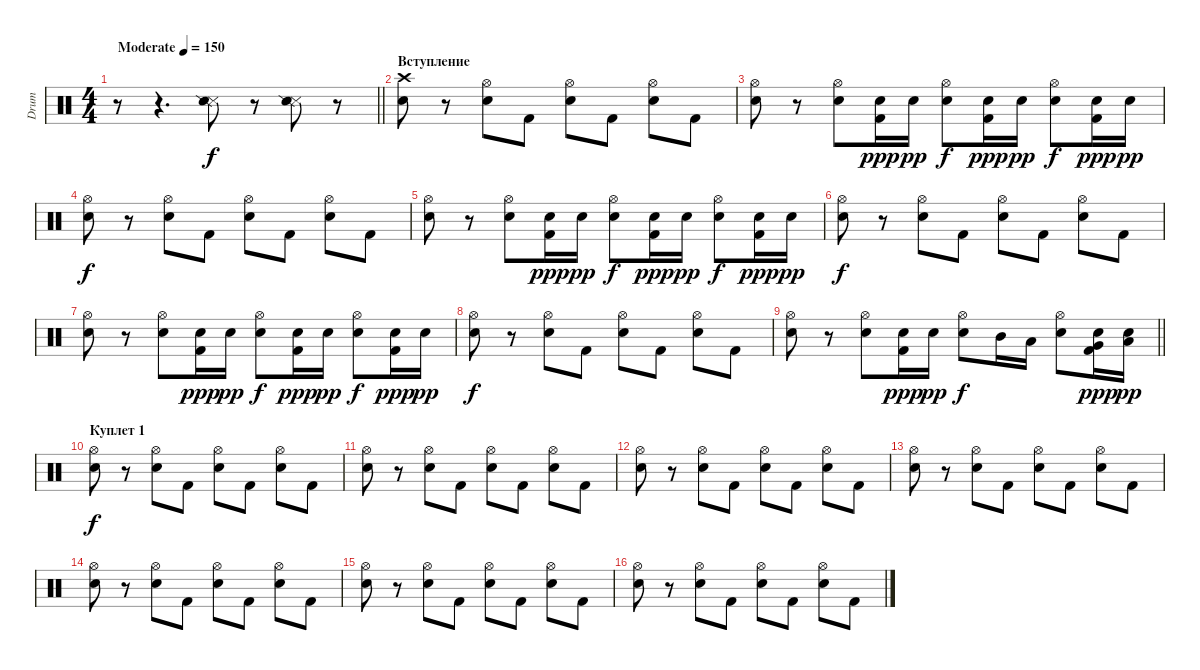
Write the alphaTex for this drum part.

\track ("Drum" "Drum") {instrument percussion}
\staff {score}
\articulation defaults
\ts (4 4)
\tempo (150 "Moderate")
\clef neutral
\barLineRight lightlight
\ks c
r.8{dy f} r.4{d} ("Snare (side stick) 3" "Snare (side stick) 2").8 r.8 ("Snare (side stick) 3" "Snare (side stick) 2").8 r.8 |
\section ("" "Вступление")
("Crash high (hit)" "Snare (hit) 2").8 r.8 ("Snare (hit) 2" "Hi-Hat (open)").8 "Kick (hit) 2".8 ("Snare (hit) 2" "Hi-Hat (open)").8 "Kick (hit) 2".8 ("Snare (hit) 2" "Hi-Hat (open)").8 "Kick (hit) 2".8 |
("Snare (hit) 2" "Hi-Hat (open)").8 r.8 ("Hi-Hat (open)" "Snare (hit) 2").8 ("Snare (hit) 2" "Kick (hit) 2").16{dy ppp} "Snare (hit) 2".16{dy pp} ("Hi-Hat (open)" "Snare (hit) 2").8{dy f} ("Snare (hit) 2" "Kick (hit) 2").16{dy ppp} "Snare (hit) 2".16{dy pp} ("Hi-Hat (open)" "Snare (hit) 2").8{dy f} ("Snare (hit) 2" "Kick (hit) 2").16{dy ppp} "Snare (hit) 2".16{dy pp} |
("Snare (hit) 2" "Hi-Hat (open)").8{dy f} r.8 ("Snare (hit) 2" "Hi-Hat (open)").8 "Kick (hit) 2".8 ("Snare (hit) 2" "Hi-Hat (open)").8 "Kick (hit) 2".8 ("Snare (hit) 2" "Hi-Hat (open)").8 "Kick (hit) 2".8 |
("Snare (hit) 2" "Hi-Hat (open)").8 r.8 ("Hi-Hat (open)" "Snare (hit) 2").8 ("Snare (hit) 2" "Kick (hit) 2").16{dy ppp} "Snare (hit) 2".16{dy pp} ("Hi-Hat (open)" "Snare (hit) 2").8{dy f} ("Snare (hit) 2" "Kick (hit) 2").16{dy ppp} "Snare (hit) 2".16{dy pp} ("Hi-Hat (open)" "Snare (hit) 2").8{dy f} ("Snare (hit) 2" "Kick (hit) 2").16{dy ppp} "Snare (hit) 2".16{dy pp} |
("Snare (hit) 2" "Hi-Hat (open)").8{dy f} r.8 ("Snare (hit) 2" "Hi-Hat (open)").8 "Kick (hit) 2".8 ("Snare (hit) 2" "Hi-Hat (open)").8 "Kick (hit) 2".8 ("Snare (hit) 2" "Hi-Hat (open)").8 "Kick (hit) 2".8 |
("Snare (hit) 2" "Hi-Hat (open)").8 r.8 ("Hi-Hat (open)" "Snare (hit) 2").8 ("Snare (hit) 2" "Kick (hit) 2").16{dy ppp} "Snare (hit) 2".16{dy pp} ("Hi-Hat (open)" "Snare (hit) 2").8{dy f} ("Snare (hit) 2" "Kick (hit) 2").16{dy ppp} "Snare (hit) 2".16{dy pp} ("Hi-Hat (open)" "Snare (hit) 2").8{dy f} ("Snare (hit) 2" "Kick (hit) 2").16{dy ppp} "Snare (hit) 2".16{dy pp} |
("Snare (hit) 2" "Hi-Hat (open)").8{dy f} r.8 ("Snare (hit) 2" "Hi-Hat (open)").8 "Kick (hit) 2".8 ("Snare (hit) 2" "Hi-Hat (open)").8 "Kick (hit) 2".8 ("Snare (hit) 2" "Hi-Hat (open)").8 "Kick (hit) 2".8 |
\barLineRight lightlight
("Snare (hit) 2" "Hi-Hat (open)").8 r.8 ("Hi-Hat (open)" "Snare (hit) 2").8 ("Snare (hit) 2" "Kick (hit) 2").16{dy ppp} "Snare (hit) 2".16{dy pp} ("Hi-Hat (open)" "Snare (hit) 2").8{dy f} "Mid Tom (hit)".16 "Low Tom (hit)".16 ("Hi-Hat (open)" "Snare (hit) 2").8 ("Very Low Tom (hit)" "Snare (hit) 2" "Kick (hit) 2").16{dy ppp} ("Low Floor Tom (hit)" "Snare (hit) 2").16{dy pp} |
\section ("" "Куплет 1")
("Snare (hit) 2" "Hi-Hat (open)").8{dy f} r.8 ("Snare (hit) 2" "Hi-Hat (open)").8 "Kick (hit) 2".8 ("Snare (hit) 2" "Hi-Hat (open)").8 "Kick (hit) 2".8 ("Snare (hit) 2" "Hi-Hat (open)").8 "Kick (hit) 2".8 |
("Snare (hit) 2" "Hi-Hat (open)").8 r.8 ("Snare (hit) 2" "Hi-Hat (open)").8 "Kick (hit) 2".8 ("Snare (hit) 2" "Hi-Hat (open)").8 "Kick (hit) 2".8 ("Snare (hit) 2" "Hi-Hat (open)").8 "Kick (hit) 2".8 |
("Snare (hit) 2" "Hi-Hat (open)").8 r.8 ("Snare (hit) 2" "Hi-Hat (open)").8 "Kick (hit) 2".8 ("Snare (hit) 2" "Hi-Hat (open)").8 "Kick (hit) 2".8 ("Snare (hit) 2" "Hi-Hat (open)").8 "Kick (hit) 2".8 |
("Snare (hit) 2" "Hi-Hat (open)").8 r.8 ("Snare (hit) 2" "Hi-Hat (open)").8 "Kick (hit) 2".8 ("Snare (hit) 2" "Hi-Hat (open)").8 "Kick (hit) 2".8 ("Snare (hit) 2" "Hi-Hat (open)").8 "Kick (hit) 2".8 |
("Snare (hit) 2" "Hi-Hat (open)").8 r.8 ("Snare (hit) 2" "Hi-Hat (open)").8 "Kick (hit) 2".8 ("Snare (hit) 2" "Hi-Hat (open)").8 "Kick (hit) 2".8 ("Snare (hit) 2" "Hi-Hat (open)").8 "Kick (hit) 2".8 |
("Snare (hit) 2" "Hi-Hat (open)").8 r.8 ("Snare (hit) 2" "Hi-Hat (open)").8 "Kick (hit) 2".8 ("Snare (hit) 2" "Hi-Hat (open)").8 "Kick (hit) 2".8 ("Snare (hit) 2" "Hi-Hat (open)").8 "Kick (hit) 2".8 |
("Snare (hit) 2" "Hi-Hat (open)").8 r.8 ("Snare (hit) 2" "Hi-Hat (open)").8 "Kick (hit) 2".8 ("Snare (hit) 2" "Hi-Hat (open)").8 "Kick (hit) 2".8 ("Snare (hit) 2" "Hi-Hat (open)").8 "Kick (hit) 2".8
